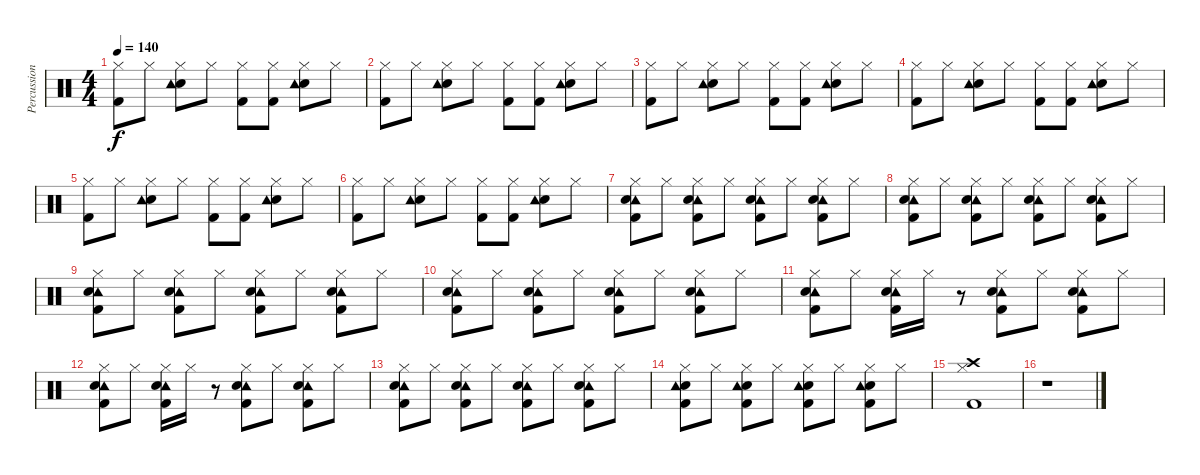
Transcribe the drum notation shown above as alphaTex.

\track ("Percussion" "Percussion") {instrument percussion}
\staff {score}
\articulation defaults
\ts (4 4)
\tempo 140
\clef neutral
\ks c
("Hi-Hat (closed)" "Kick (hit) 2").8{dy f} "Hi-Hat (closed)".8 ("Hi-Hat (closed)" "Snare (hit) 2" "Tambourine (hit)").8 "Hi-Hat (closed)".8 ("Hi-Hat (closed)" "Kick (hit) 2").8 ("Hi-Hat (closed)" "Kick (hit) 2").8 ("Hi-Hat (closed)" "Snare (hit) 2" "Tambourine (hit)").8 "Hi-Hat (closed)".8 |
("Hi-Hat (closed)" "Kick (hit) 2").8 "Hi-Hat (closed)".8 ("Hi-Hat (closed)" "Snare (hit) 2" "Tambourine (hit)").8 "Hi-Hat (closed)".8 ("Hi-Hat (closed)" "Kick (hit) 2").8 ("Hi-Hat (closed)" "Kick (hit) 2").8 ("Hi-Hat (closed)" "Snare (hit) 2" "Tambourine (hit)").8 "Hi-Hat (closed)".8 |
("Hi-Hat (closed)" "Kick (hit) 2").8 "Hi-Hat (closed)".8 ("Hi-Hat (closed)" "Snare (hit) 2" "Tambourine (hit)").8 "Hi-Hat (closed)".8 ("Hi-Hat (closed)" "Kick (hit) 2").8 ("Hi-Hat (closed)" "Kick (hit) 2").8 ("Hi-Hat (closed)" "Snare (hit) 2" "Tambourine (hit)").8 "Hi-Hat (closed)".8 |
("Hi-Hat (closed)" "Kick (hit) 2").8 "Hi-Hat (closed)".8 ("Hi-Hat (closed)" "Snare (hit) 2" "Tambourine (hit)").8 "Hi-Hat (closed)".8 ("Hi-Hat (closed)" "Kick (hit) 2").8 ("Hi-Hat (closed)" "Kick (hit) 2").8 ("Hi-Hat (closed)" "Snare (hit) 2" "Tambourine (hit)").8 "Hi-Hat (closed)".8 |
("Hi-Hat (closed)" "Kick (hit) 2").8 "Hi-Hat (closed)".8 ("Hi-Hat (closed)" "Snare (hit) 2" "Tambourine (hit)").8 "Hi-Hat (closed)".8 ("Hi-Hat (closed)" "Kick (hit) 2").8 ("Hi-Hat (closed)" "Kick (hit) 2").8 ("Hi-Hat (closed)" "Snare (hit) 2" "Tambourine (hit)").8 "Hi-Hat (closed)".8 |
("Hi-Hat (closed)" "Kick (hit) 2").8 "Hi-Hat (closed)".8 ("Hi-Hat (closed)" "Snare (hit) 2" "Tambourine (hit)").8 "Hi-Hat (closed)".8 ("Hi-Hat (closed)" "Kick (hit) 2").8 ("Hi-Hat (closed)" "Kick (hit) 2").8 ("Hi-Hat (closed)" "Snare (hit) 2" "Tambourine (hit)").8 "Hi-Hat (closed)".8 |
("Hi-Hat (closed)" "Tambourine (hit)" "Snare (hit) 2" "Kick (hit) 2").8 "Hi-Hat (closed)".8 ("Hi-Hat (closed)" "Tambourine (hit)" "Snare (hit) 2" "Kick (hit) 2").8 "Hi-Hat (closed)".8 ("Hi-Hat (closed)" "Tambourine (hit)" "Snare (hit) 2" "Kick (hit) 2").8 "Hi-Hat (closed)".8 ("Hi-Hat (closed)" "Tambourine (hit)" "Snare (hit) 2" "Kick (hit) 2").8 "Hi-Hat (closed)".8 |
("Hi-Hat (closed)" "Tambourine (hit)" "Snare (hit) 2" "Kick (hit) 2").8 "Hi-Hat (closed)".8 ("Hi-Hat (closed)" "Tambourine (hit)" "Snare (hit) 2" "Kick (hit) 2").8 "Hi-Hat (closed)".8 ("Hi-Hat (closed)" "Tambourine (hit)" "Snare (hit) 2" "Kick (hit) 2").8 "Hi-Hat (closed)".8 ("Hi-Hat (closed)" "Tambourine (hit)" "Snare (hit) 2" "Kick (hit) 2").8 "Hi-Hat (closed)".8 |
("Hi-Hat (closed)" "Tambourine (hit)" "Snare (hit) 2" "Kick (hit) 2").8 "Hi-Hat (closed)".8 ("Hi-Hat (closed)" "Tambourine (hit)" "Snare (hit) 2" "Kick (hit) 2").8 "Hi-Hat (closed)".8 ("Hi-Hat (closed)" "Tambourine (hit)" "Snare (hit) 2" "Kick (hit) 2").8 "Hi-Hat (closed)".8 ("Hi-Hat (closed)" "Tambourine (hit)" "Snare (hit) 2" "Kick (hit) 2").8 "Hi-Hat (closed)".8 |
("Hi-Hat (closed)" "Tambourine (hit)" "Snare (hit) 2" "Kick (hit) 2").8 "Hi-Hat (closed)".8 ("Hi-Hat (closed)" "Tambourine (hit)" "Snare (hit) 2" "Kick (hit) 2").8 "Hi-Hat (closed)".8 ("Hi-Hat (closed)" "Tambourine (hit)" "Snare (hit) 2" "Kick (hit) 2").8 "Hi-Hat (closed)".8 ("Hi-Hat (closed)" "Tambourine (hit)" "Snare (hit) 2" "Kick (hit) 2").8 "Hi-Hat (closed)".8 |
("Hi-Hat (closed)" "Tambourine (hit)" "Snare (hit) 2" "Kick (hit) 2").8 "Hi-Hat (closed)".8 ("Hi-Hat (closed)" "Tambourine (hit)" "Snare (hit) 2" "Kick (hit) 2").16 "Hi-Hat (closed)".16 r.8 ("Hi-Hat (closed)" "Tambourine (hit)" "Snare (hit) 2" "Kick (hit) 2").8 "Hi-Hat (closed)".8 ("Hi-Hat (closed)" "Tambourine (hit)" "Snare (hit) 2" "Kick (hit) 2").8 "Hi-Hat (closed)".8 |
("Hi-Hat (closed)" "Tambourine (hit)" "Snare (hit) 2" "Kick (hit) 2").8 "Hi-Hat (closed)".8 ("Hi-Hat (closed)" "Tambourine (hit)" "Snare (hit) 2" "Kick (hit) 2").16 "Hi-Hat (closed)".16 r.8 ("Hi-Hat (closed)" "Tambourine (hit)" "Snare (hit) 2" "Kick (hit) 2").8 "Hi-Hat (closed)".8 ("Hi-Hat (closed)" "Tambourine (hit)" "Snare (hit) 2" "Kick (hit) 2").8 "Hi-Hat (closed)".8 |
("Hi-Hat (closed)" "Tambourine (hit)" "Snare (hit) 2" "Kick (hit) 2").8 "Hi-Hat (closed)".8 ("Hi-Hat (closed)" "Tambourine (hit)" "Snare (hit) 2" "Kick (hit) 2").8 "Hi-Hat (closed)".8 ("Hi-Hat (closed)" "Tambourine (hit)" "Snare (hit) 2" "Kick (hit) 2").8 "Hi-Hat (closed)".8 ("Hi-Hat (closed)" "Tambourine (hit)" "Snare (hit) 2" "Kick (hit) 2").8 "Hi-Hat (closed)".8 |
("Hi-Hat (closed)" "Snare (hit) 2" "Tambourine (hit)" "Kick (hit) 2").8 "Hi-Hat (closed)".8 ("Hi-Hat (closed)" "Snare (hit) 2" "Tambourine (hit)" "Kick (hit) 2").8 "Hi-Hat (closed)".8 ("Hi-Hat (closed)" "Snare (hit) 2" "Tambourine (hit)" "Kick (hit) 2").8 "Hi-Hat (closed)".8 ("Hi-Hat (closed)" "Snare (hit) 2" "Tambourine (hit)" "Kick (hit) 2").8 "Hi-Hat (closed)".8 |
("Hi-Hat (closed)" "Crash high (hit)" "Kick (hit) 2").1 |
r.1
